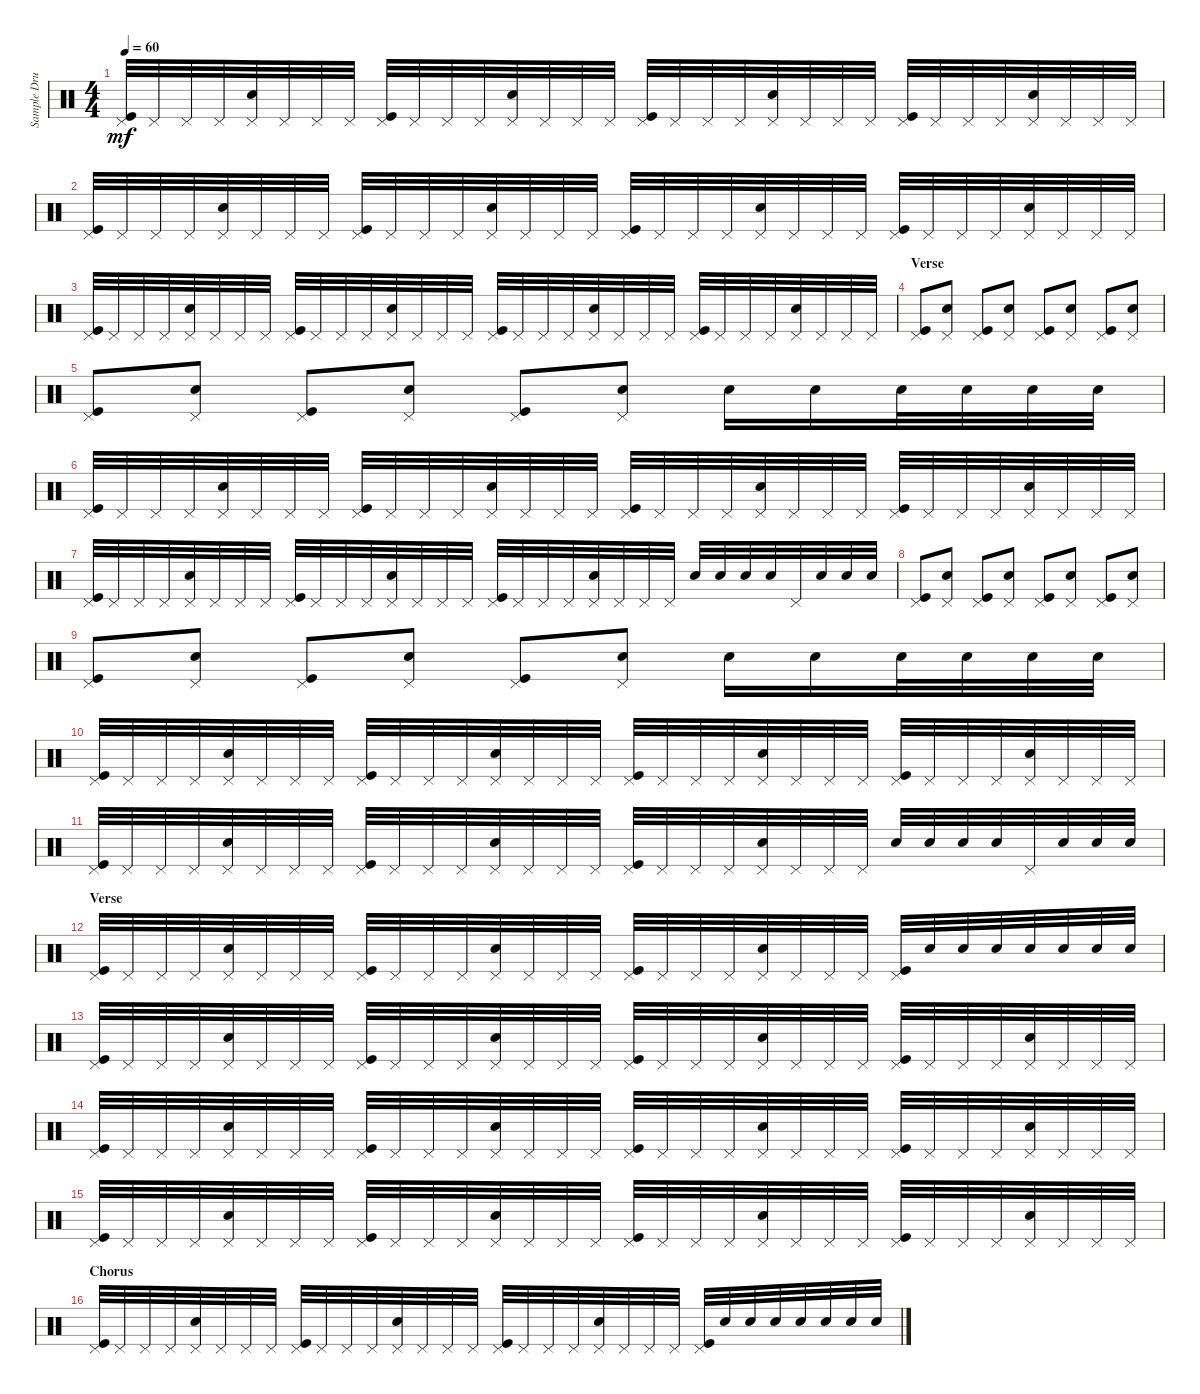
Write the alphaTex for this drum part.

\track ("Sample Drums" "Sample Dru") {instrument percussion}
\staff {score}
\articulation defaults
\ts (4 4)
\tempo 60
\clef neutral
\ks c
("Pedal Hi-Hat (hit)" "Kick (hit)").32{dy mf} "Pedal Hi-Hat (hit)".32 "Pedal Hi-Hat (hit)".32 "Pedal Hi-Hat (hit)".32 ("Pedal Hi-Hat (hit)" "Snare (hit) 2").32 "Pedal Hi-Hat (hit)".32 "Pedal Hi-Hat (hit)".32 "Pedal Hi-Hat (hit)".32 ("Pedal Hi-Hat (hit)" "Kick (hit)").32 "Pedal Hi-Hat (hit)".32 "Pedal Hi-Hat (hit)".32 "Pedal Hi-Hat (hit)".32 ("Pedal Hi-Hat (hit)" "Snare (hit) 2").32 "Pedal Hi-Hat (hit)".32 "Pedal Hi-Hat (hit)".32 "Pedal Hi-Hat (hit)".32 ("Pedal Hi-Hat (hit)" "Kick (hit)").32 "Pedal Hi-Hat (hit)".32 "Pedal Hi-Hat (hit)".32 "Pedal Hi-Hat (hit)".32 ("Pedal Hi-Hat (hit)" "Snare (hit) 2").32 "Pedal Hi-Hat (hit)".32 "Pedal Hi-Hat (hit)".32 "Pedal Hi-Hat (hit)".32 ("Pedal Hi-Hat (hit)" "Kick (hit)").32 "Pedal Hi-Hat (hit)".32 "Pedal Hi-Hat (hit)".32 "Pedal Hi-Hat (hit)".32 ("Pedal Hi-Hat (hit)" "Snare (hit) 2").32 "Pedal Hi-Hat (hit)".32 "Pedal Hi-Hat (hit)".32 "Pedal Hi-Hat (hit)".32 |
("Pedal Hi-Hat (hit)" "Kick (hit)").32 "Pedal Hi-Hat (hit)".32 "Pedal Hi-Hat (hit)".32 "Pedal Hi-Hat (hit)".32 ("Pedal Hi-Hat (hit)" "Snare (hit) 2").32 "Pedal Hi-Hat (hit)".32 "Pedal Hi-Hat (hit)".32 "Pedal Hi-Hat (hit)".32 ("Pedal Hi-Hat (hit)" "Kick (hit)").32 "Pedal Hi-Hat (hit)".32 "Pedal Hi-Hat (hit)".32 "Pedal Hi-Hat (hit)".32 ("Pedal Hi-Hat (hit)" "Snare (hit) 2").32 "Pedal Hi-Hat (hit)".32 "Pedal Hi-Hat (hit)".32 "Pedal Hi-Hat (hit)".32 ("Pedal Hi-Hat (hit)" "Kick (hit)").32 "Pedal Hi-Hat (hit)".32 "Pedal Hi-Hat (hit)".32 "Pedal Hi-Hat (hit)".32 ("Pedal Hi-Hat (hit)" "Snare (hit) 2").32 "Pedal Hi-Hat (hit)".32 "Pedal Hi-Hat (hit)".32 "Pedal Hi-Hat (hit)".32 ("Pedal Hi-Hat (hit)" "Kick (hit)").32 "Pedal Hi-Hat (hit)".32 "Pedal Hi-Hat (hit)".32 "Pedal Hi-Hat (hit)".32 ("Pedal Hi-Hat (hit)" "Snare (hit) 2").32 "Pedal Hi-Hat (hit)".32 "Pedal Hi-Hat (hit)".32 "Pedal Hi-Hat (hit)".32 |
("Pedal Hi-Hat (hit)" "Kick (hit)").32 "Pedal Hi-Hat (hit)".32 "Pedal Hi-Hat (hit)".32 "Pedal Hi-Hat (hit)".32 ("Pedal Hi-Hat (hit)" "Snare (hit) 2").32 "Pedal Hi-Hat (hit)".32 "Pedal Hi-Hat (hit)".32 "Pedal Hi-Hat (hit)".32 ("Pedal Hi-Hat (hit)" "Kick (hit)").32 "Pedal Hi-Hat (hit)".32 "Pedal Hi-Hat (hit)".32 "Pedal Hi-Hat (hit)".32 ("Pedal Hi-Hat (hit)" "Snare (hit) 2").32 "Pedal Hi-Hat (hit)".32 "Pedal Hi-Hat (hit)".32 "Pedal Hi-Hat (hit)".32 ("Pedal Hi-Hat (hit)" "Kick (hit)").32 "Pedal Hi-Hat (hit)".32 "Pedal Hi-Hat (hit)".32 "Pedal Hi-Hat (hit)".32 ("Pedal Hi-Hat (hit)" "Snare (hit) 2").32 "Pedal Hi-Hat (hit)".32 "Pedal Hi-Hat (hit)".32 "Pedal Hi-Hat (hit)".32 ("Pedal Hi-Hat (hit)" "Kick (hit)").32 "Pedal Hi-Hat (hit)".32 "Pedal Hi-Hat (hit)".32 "Pedal Hi-Hat (hit)".32 ("Pedal Hi-Hat (hit)" "Snare (hit) 2").32 "Pedal Hi-Hat (hit)".32 "Pedal Hi-Hat (hit)".32 "Pedal Hi-Hat (hit)".32 |
\section ("" "Verse")
("Pedal Hi-Hat (hit)" "Kick (hit)").8 ("Snare (hit) 2" "Pedal Hi-Hat (hit)").8 ("Pedal Hi-Hat (hit)" "Kick (hit)").8 ("Snare (hit) 2" "Pedal Hi-Hat (hit)").8 ("Kick (hit)" "Pedal Hi-Hat (hit)").8 ("Snare (hit) 2" "Pedal Hi-Hat (hit)").8 ("Kick (hit)" "Pedal Hi-Hat (hit)").8 ("Snare (hit) 2" "Pedal Hi-Hat (hit)").8 |
("Pedal Hi-Hat (hit)" "Kick (hit)").8 ("Snare (hit) 2" "Pedal Hi-Hat (hit)").8 ("Pedal Hi-Hat (hit)" "Kick (hit)").8 ("Snare (hit) 2" "Pedal Hi-Hat (hit)").8 ("Pedal Hi-Hat (hit)" "Kick (hit)").8 ("Snare (hit) 2" "Pedal Hi-Hat (hit)").8 "Snare (hit) 2".16 "Snare (hit) 2".16 "Snare (hit) 2".32 "Snare (hit) 2".32 "Snare (hit) 2".32 "Snare (hit) 2".32 |
("Pedal Hi-Hat (hit)" "Kick (hit)").32 "Pedal Hi-Hat (hit)".32 "Pedal Hi-Hat (hit)".32 "Pedal Hi-Hat (hit)".32 ("Pedal Hi-Hat (hit)" "Snare (hit) 2").32 "Pedal Hi-Hat (hit)".32 "Pedal Hi-Hat (hit)".32 "Pedal Hi-Hat (hit)".32 ("Pedal Hi-Hat (hit)" "Kick (hit)").32 "Pedal Hi-Hat (hit)".32 "Pedal Hi-Hat (hit)".32 "Pedal Hi-Hat (hit)".32 ("Pedal Hi-Hat (hit)" "Snare (hit) 2").32 "Pedal Hi-Hat (hit)".32 "Pedal Hi-Hat (hit)".32 "Pedal Hi-Hat (hit)".32 ("Pedal Hi-Hat (hit)" "Kick (hit)").32 "Pedal Hi-Hat (hit)".32 "Pedal Hi-Hat (hit)".32 "Pedal Hi-Hat (hit)".32 ("Pedal Hi-Hat (hit)" "Snare (hit) 2").32 "Pedal Hi-Hat (hit)".32 "Pedal Hi-Hat (hit)".32 "Pedal Hi-Hat (hit)".32 ("Pedal Hi-Hat (hit)" "Kick (hit)").32 "Pedal Hi-Hat (hit)".32 "Pedal Hi-Hat (hit)".32 "Pedal Hi-Hat (hit)".32 ("Pedal Hi-Hat (hit)" "Snare (hit) 2").32 "Pedal Hi-Hat (hit)".32 "Pedal Hi-Hat (hit)".32 "Pedal Hi-Hat (hit)".32 |
("Pedal Hi-Hat (hit)" "Kick (hit)").32 "Pedal Hi-Hat (hit)".32 "Pedal Hi-Hat (hit)".32 "Pedal Hi-Hat (hit)".32 ("Pedal Hi-Hat (hit)" "Snare (hit) 2").32 "Pedal Hi-Hat (hit)".32 "Pedal Hi-Hat (hit)".32 "Pedal Hi-Hat (hit)".32 ("Pedal Hi-Hat (hit)" "Kick (hit)").32 "Pedal Hi-Hat (hit)".32 "Pedal Hi-Hat (hit)".32 "Pedal Hi-Hat (hit)".32 ("Pedal Hi-Hat (hit)" "Snare (hit) 2").32 "Pedal Hi-Hat (hit)".32 "Pedal Hi-Hat (hit)".32 "Pedal Hi-Hat (hit)".32 ("Pedal Hi-Hat (hit)" "Kick (hit)").32 "Pedal Hi-Hat (hit)".32 "Pedal Hi-Hat (hit)".32 "Pedal Hi-Hat (hit)".32 ("Pedal Hi-Hat (hit)" "Snare (hit) 2").32 "Pedal Hi-Hat (hit)".32 "Pedal Hi-Hat (hit)".32 "Pedal Hi-Hat (hit)".32 "Snare (hit) 2".32 "Snare (hit) 2".32 "Snare (hit) 2".32 "Snare (hit) 2".32 "Pedal Hi-Hat (hit)".32 "Snare (hit) 2".32 "Snare (hit) 2".32 "Snare (hit) 2".32 |
("Pedal Hi-Hat (hit)" "Kick (hit)").8 ("Snare (hit) 2" "Pedal Hi-Hat (hit)").8 ("Pedal Hi-Hat (hit)" "Kick (hit)").8 ("Snare (hit) 2" "Pedal Hi-Hat (hit)").8 ("Kick (hit)" "Pedal Hi-Hat (hit)").8 ("Snare (hit) 2" "Pedal Hi-Hat (hit)").8 ("Kick (hit)" "Pedal Hi-Hat (hit)").8 ("Snare (hit) 2" "Pedal Hi-Hat (hit)").8 |
("Pedal Hi-Hat (hit)" "Kick (hit)").8 ("Snare (hit) 2" "Pedal Hi-Hat (hit)").8 ("Pedal Hi-Hat (hit)" "Kick (hit)").8 ("Snare (hit) 2" "Pedal Hi-Hat (hit)").8 ("Pedal Hi-Hat (hit)" "Kick (hit)").8 ("Snare (hit) 2" "Pedal Hi-Hat (hit)").8 "Snare (hit) 2".16 "Snare (hit) 2".16 "Snare (hit) 2".32 "Snare (hit) 2".32 "Snare (hit) 2".32 "Snare (hit) 2".32 |
("Pedal Hi-Hat (hit)" "Kick (hit)").32 "Pedal Hi-Hat (hit)".32 "Pedal Hi-Hat (hit)".32 "Pedal Hi-Hat (hit)".32 ("Pedal Hi-Hat (hit)" "Snare (hit) 2").32 "Pedal Hi-Hat (hit)".32 "Pedal Hi-Hat (hit)".32 "Pedal Hi-Hat (hit)".32 ("Pedal Hi-Hat (hit)" "Kick (hit)").32 "Pedal Hi-Hat (hit)".32 "Pedal Hi-Hat (hit)".32 "Pedal Hi-Hat (hit)".32 ("Pedal Hi-Hat (hit)" "Snare (hit) 2").32 "Pedal Hi-Hat (hit)".32 "Pedal Hi-Hat (hit)".32 "Pedal Hi-Hat (hit)".32 ("Pedal Hi-Hat (hit)" "Kick (hit)").32 "Pedal Hi-Hat (hit)".32 "Pedal Hi-Hat (hit)".32 "Pedal Hi-Hat (hit)".32 ("Pedal Hi-Hat (hit)" "Snare (hit) 2").32 "Pedal Hi-Hat (hit)".32 "Pedal Hi-Hat (hit)".32 "Pedal Hi-Hat (hit)".32 ("Pedal Hi-Hat (hit)" "Kick (hit)").32 "Pedal Hi-Hat (hit)".32 "Pedal Hi-Hat (hit)".32 "Pedal Hi-Hat (hit)".32 ("Pedal Hi-Hat (hit)" "Snare (hit) 2").32 "Pedal Hi-Hat (hit)".32 "Pedal Hi-Hat (hit)".32 "Pedal Hi-Hat (hit)".32 |
("Pedal Hi-Hat (hit)" "Kick (hit)").32 "Pedal Hi-Hat (hit)".32 "Pedal Hi-Hat (hit)".32 "Pedal Hi-Hat (hit)".32 ("Pedal Hi-Hat (hit)" "Snare (hit) 2").32 "Pedal Hi-Hat (hit)".32 "Pedal Hi-Hat (hit)".32 "Pedal Hi-Hat (hit)".32 ("Pedal Hi-Hat (hit)" "Kick (hit)").32 "Pedal Hi-Hat (hit)".32 "Pedal Hi-Hat (hit)".32 "Pedal Hi-Hat (hit)".32 ("Pedal Hi-Hat (hit)" "Snare (hit) 2").32 "Pedal Hi-Hat (hit)".32 "Pedal Hi-Hat (hit)".32 "Pedal Hi-Hat (hit)".32 ("Pedal Hi-Hat (hit)" "Kick (hit)").32 "Pedal Hi-Hat (hit)".32 "Pedal Hi-Hat (hit)".32 "Pedal Hi-Hat (hit)".32 ("Pedal Hi-Hat (hit)" "Snare (hit) 2").32 "Pedal Hi-Hat (hit)".32 "Pedal Hi-Hat (hit)".32 "Pedal Hi-Hat (hit)".32 "Snare (hit) 2".32 "Snare (hit) 2".32 "Snare (hit) 2".32 "Snare (hit) 2".32 "Pedal Hi-Hat (hit)".32 "Snare (hit) 2".32 "Snare (hit) 2".32 "Snare (hit) 2".32 |
\section ("" "Verse")
("Pedal Hi-Hat (hit)" "Kick (hit)").32 "Pedal Hi-Hat (hit)".32 "Pedal Hi-Hat (hit)".32 "Pedal Hi-Hat (hit)".32 ("Pedal Hi-Hat (hit)" "Snare (hit) 2").32 "Pedal Hi-Hat (hit)".32 "Pedal Hi-Hat (hit)".32 "Pedal Hi-Hat (hit)".32 ("Pedal Hi-Hat (hit)" "Kick (hit)").32 "Pedal Hi-Hat (hit)".32 "Pedal Hi-Hat (hit)".32 "Pedal Hi-Hat (hit)".32 ("Pedal Hi-Hat (hit)" "Snare (hit) 2").32 "Pedal Hi-Hat (hit)".32 "Pedal Hi-Hat (hit)".32 "Pedal Hi-Hat (hit)".32 ("Pedal Hi-Hat (hit)" "Kick (hit)").32 "Pedal Hi-Hat (hit)".32 "Pedal Hi-Hat (hit)".32 "Pedal Hi-Hat (hit)".32 ("Pedal Hi-Hat (hit)" "Snare (hit) 2").32 "Pedal Hi-Hat (hit)".32 "Pedal Hi-Hat (hit)".32 "Pedal Hi-Hat (hit)".32 ("Pedal Hi-Hat (hit)" "Kick (hit)").32 "Snare (hit) 2".32 "Snare (hit) 2".32 "Snare (hit) 2".32 "Snare (hit) 2".32 "Snare (hit) 2".32 "Snare (hit) 2".32 "Snare (hit) 2".32 |
("Pedal Hi-Hat (hit)" "Kick (hit)").32 "Pedal Hi-Hat (hit)".32 "Pedal Hi-Hat (hit)".32 "Pedal Hi-Hat (hit)".32 ("Pedal Hi-Hat (hit)" "Snare (hit) 2").32 "Pedal Hi-Hat (hit)".32 "Pedal Hi-Hat (hit)".32 "Pedal Hi-Hat (hit)".32 ("Pedal Hi-Hat (hit)" "Kick (hit)").32 "Pedal Hi-Hat (hit)".32 "Pedal Hi-Hat (hit)".32 "Pedal Hi-Hat (hit)".32 ("Pedal Hi-Hat (hit)" "Snare (hit) 2").32 "Pedal Hi-Hat (hit)".32 "Pedal Hi-Hat (hit)".32 "Pedal Hi-Hat (hit)".32 ("Pedal Hi-Hat (hit)" "Kick (hit)").32 "Pedal Hi-Hat (hit)".32 "Pedal Hi-Hat (hit)".32 "Pedal Hi-Hat (hit)".32 ("Pedal Hi-Hat (hit)" "Snare (hit) 2").32 "Pedal Hi-Hat (hit)".32 "Pedal Hi-Hat (hit)".32 "Pedal Hi-Hat (hit)".32 ("Pedal Hi-Hat (hit)" "Kick (hit)").32 "Pedal Hi-Hat (hit)".32 "Pedal Hi-Hat (hit)".32 "Pedal Hi-Hat (hit)".32 ("Pedal Hi-Hat (hit)" "Snare (hit) 2").32 "Pedal Hi-Hat (hit)".32 "Pedal Hi-Hat (hit)".32 "Pedal Hi-Hat (hit)".32 |
("Pedal Hi-Hat (hit)" "Kick (hit)").32 "Pedal Hi-Hat (hit)".32 "Pedal Hi-Hat (hit)".32 "Pedal Hi-Hat (hit)".32 ("Pedal Hi-Hat (hit)" "Snare (hit) 2").32 "Pedal Hi-Hat (hit)".32 "Pedal Hi-Hat (hit)".32 "Pedal Hi-Hat (hit)".32 ("Pedal Hi-Hat (hit)" "Kick (hit)").32 "Pedal Hi-Hat (hit)".32 "Pedal Hi-Hat (hit)".32 "Pedal Hi-Hat (hit)".32 ("Pedal Hi-Hat (hit)" "Snare (hit) 2").32 "Pedal Hi-Hat (hit)".32 "Pedal Hi-Hat (hit)".32 "Pedal Hi-Hat (hit)".32 ("Pedal Hi-Hat (hit)" "Kick (hit)").32 "Pedal Hi-Hat (hit)".32 "Pedal Hi-Hat (hit)".32 "Pedal Hi-Hat (hit)".32 ("Pedal Hi-Hat (hit)" "Snare (hit) 2").32 "Pedal Hi-Hat (hit)".32 "Pedal Hi-Hat (hit)".32 "Pedal Hi-Hat (hit)".32 ("Pedal Hi-Hat (hit)" "Kick (hit)").32 "Pedal Hi-Hat (hit)".32 "Pedal Hi-Hat (hit)".32 "Pedal Hi-Hat (hit)".32 ("Pedal Hi-Hat (hit)" "Snare (hit) 2").32 "Pedal Hi-Hat (hit)".32 "Pedal Hi-Hat (hit)".32 "Pedal Hi-Hat (hit)".32 |
("Pedal Hi-Hat (hit)" "Kick (hit)").32 "Pedal Hi-Hat (hit)".32 "Pedal Hi-Hat (hit)".32 "Pedal Hi-Hat (hit)".32 ("Pedal Hi-Hat (hit)" "Snare (hit) 2").32 "Pedal Hi-Hat (hit)".32 "Pedal Hi-Hat (hit)".32 "Pedal Hi-Hat (hit)".32 ("Pedal Hi-Hat (hit)" "Kick (hit)").32 "Pedal Hi-Hat (hit)".32 "Pedal Hi-Hat (hit)".32 "Pedal Hi-Hat (hit)".32 ("Pedal Hi-Hat (hit)" "Snare (hit) 2").32 "Pedal Hi-Hat (hit)".32 "Pedal Hi-Hat (hit)".32 "Pedal Hi-Hat (hit)".32 ("Pedal Hi-Hat (hit)" "Kick (hit)").32 "Pedal Hi-Hat (hit)".32 "Pedal Hi-Hat (hit)".32 "Pedal Hi-Hat (hit)".32 ("Pedal Hi-Hat (hit)" "Snare (hit) 2").32 "Pedal Hi-Hat (hit)".32 "Pedal Hi-Hat (hit)".32 "Pedal Hi-Hat (hit)".32 ("Pedal Hi-Hat (hit)" "Kick (hit)").32 "Pedal Hi-Hat (hit)".32 "Pedal Hi-Hat (hit)".32 "Pedal Hi-Hat (hit)".32 ("Pedal Hi-Hat (hit)" "Snare (hit) 2").32 "Pedal Hi-Hat (hit)".32 "Pedal Hi-Hat (hit)".32 "Pedal Hi-Hat (hit)".32 |
\section ("" "Chorus")
("Pedal Hi-Hat (hit)" "Kick (hit)").32 "Pedal Hi-Hat (hit)".32 "Pedal Hi-Hat (hit)".32 "Pedal Hi-Hat (hit)".32 ("Pedal Hi-Hat (hit)" "Snare (hit) 2").32 "Pedal Hi-Hat (hit)".32 "Pedal Hi-Hat (hit)".32 "Pedal Hi-Hat (hit)".32 ("Pedal Hi-Hat (hit)" "Kick (hit)").32 "Pedal Hi-Hat (hit)".32 "Pedal Hi-Hat (hit)".32 "Pedal Hi-Hat (hit)".32 ("Pedal Hi-Hat (hit)" "Snare (hit) 2").32 "Pedal Hi-Hat (hit)".32 "Pedal Hi-Hat (hit)".32 "Pedal Hi-Hat (hit)".32 ("Pedal Hi-Hat (hit)" "Kick (hit)").32 "Pedal Hi-Hat (hit)".32 "Pedal Hi-Hat (hit)".32 "Pedal Hi-Hat (hit)".32 ("Pedal Hi-Hat (hit)" "Snare (hit) 2").32 "Pedal Hi-Hat (hit)".32 "Pedal Hi-Hat (hit)".32 "Pedal Hi-Hat (hit)".32 ("Pedal Hi-Hat (hit)" "Kick (hit)").32 "Snare (hit) 2".32 "Snare (hit) 2".32 "Snare (hit) 2".32 "Snare (hit) 2".32 "Snare (hit) 2".32 "Snare (hit) 2".32 "Snare (hit) 2".32
